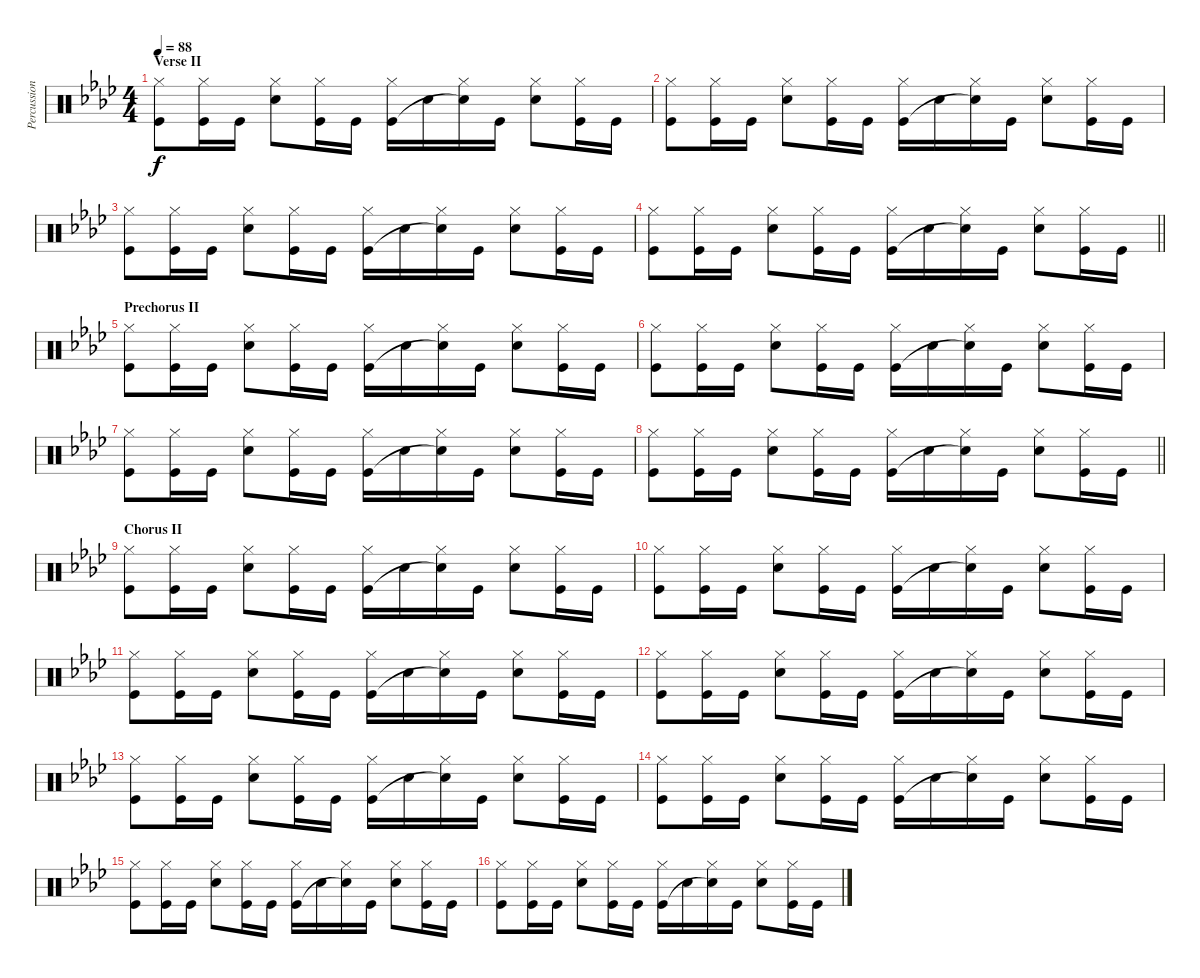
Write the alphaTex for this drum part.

\track ("Percussion" "Percussion") {instrument percussion}
\staff {score}
\articulation defaults
\ts (4 4)
\section ("" "Verse II")
\tempo 88
\clef neutral
\ks ab
("Hi-Hat (closed)" "Kick (hit)").8{dy f} ("Hi-Hat (closed)" "Kick (hit)").16 "Kick (hit)".16 ("Hi-Hat (closed)" "Snare (hit) 2").8 ("Hi-Hat (closed)" "Kick (hit)").16 "Kick (hit)".16 ("Hi-Hat (closed)" "Kick (hit)").16 "Snare (hit) 2".16 ("Hi-Hat (closed)" "Snare (hit) 2"{t}).16 "Kick (hit)".16 ("Hi-Hat (closed)" "Snare (hit) 2").8 ("Hi-Hat (closed)" "Kick (hit)").16 "Kick (hit)".16 |
("Hi-Hat (closed)" "Kick (hit)").8 ("Hi-Hat (closed)" "Kick (hit)").16 "Kick (hit)".16 ("Hi-Hat (closed)" "Snare (hit) 2").8 ("Hi-Hat (closed)" "Kick (hit)").16 "Kick (hit)".16 ("Hi-Hat (closed)" "Kick (hit)").16 "Snare (hit) 2".16 ("Hi-Hat (closed)" "Snare (hit) 2"{t}).16 "Kick (hit)".16 ("Hi-Hat (closed)" "Snare (hit) 2").8 ("Hi-Hat (closed)" "Kick (hit)").16 "Kick (hit)".16 |
("Hi-Hat (closed)" "Kick (hit)").8 ("Hi-Hat (closed)" "Kick (hit)").16 "Kick (hit)".16 ("Hi-Hat (closed)" "Snare (hit) 2").8 ("Hi-Hat (closed)" "Kick (hit)").16 "Kick (hit)".16 ("Hi-Hat (closed)" "Kick (hit)").16 "Snare (hit) 2".16 ("Hi-Hat (closed)" "Snare (hit) 2"{t}).16 "Kick (hit)".16 ("Hi-Hat (closed)" "Snare (hit) 2").8 ("Hi-Hat (closed)" "Kick (hit)").16 "Kick (hit)".16 |
\barLineRight lightlight
("Hi-Hat (closed)" "Kick (hit)").8 ("Hi-Hat (closed)" "Kick (hit)").16 "Kick (hit)".16 ("Hi-Hat (closed)" "Snare (hit) 2").8 ("Hi-Hat (closed)" "Kick (hit)").16 "Kick (hit)".16 ("Hi-Hat (closed)" "Kick (hit)").16 "Snare (hit) 2".16 ("Hi-Hat (closed)" "Snare (hit) 2"{t}).16 "Kick (hit)".16 ("Hi-Hat (closed)" "Snare (hit) 2").8 ("Hi-Hat (closed)" "Kick (hit)").16 "Kick (hit)".16 |
\section ("" "Prechorus II")
("Hi-Hat (closed)" "Kick (hit)").8 ("Hi-Hat (closed)" "Kick (hit)").16 "Kick (hit)".16 ("Hi-Hat (closed)" "Snare (hit) 2").8 ("Hi-Hat (closed)" "Kick (hit)").16 "Kick (hit)".16 ("Hi-Hat (closed)" "Kick (hit)").16 "Snare (hit) 2".16 ("Hi-Hat (closed)" "Snare (hit) 2"{t}).16 "Kick (hit)".16 ("Hi-Hat (closed)" "Snare (hit) 2").8 ("Hi-Hat (closed)" "Kick (hit)").16 "Kick (hit)".16 |
("Hi-Hat (closed)" "Kick (hit)").8 ("Hi-Hat (closed)" "Kick (hit)").16 "Kick (hit)".16 ("Hi-Hat (closed)" "Snare (hit) 2").8 ("Hi-Hat (closed)" "Kick (hit)").16 "Kick (hit)".16 ("Hi-Hat (closed)" "Kick (hit)").16 "Snare (hit) 2".16 ("Hi-Hat (closed)" "Snare (hit) 2"{t}).16 "Kick (hit)".16 ("Hi-Hat (closed)" "Snare (hit) 2").8 ("Hi-Hat (closed)" "Kick (hit)").16 "Kick (hit)".16 |
("Hi-Hat (closed)" "Kick (hit)").8 ("Hi-Hat (closed)" "Kick (hit)").16 "Kick (hit)".16 ("Hi-Hat (closed)" "Snare (hit) 2").8 ("Hi-Hat (closed)" "Kick (hit)").16 "Kick (hit)".16 ("Hi-Hat (closed)" "Kick (hit)").16 "Snare (hit) 2".16 ("Hi-Hat (closed)" "Snare (hit) 2"{t}).16 "Kick (hit)".16 ("Hi-Hat (closed)" "Snare (hit) 2").8 ("Hi-Hat (closed)" "Kick (hit)").16 "Kick (hit)".16 |
\barLineRight lightlight
("Hi-Hat (closed)" "Kick (hit)").8 ("Hi-Hat (closed)" "Kick (hit)").16 "Kick (hit)".16 ("Hi-Hat (closed)" "Snare (hit) 2").8 ("Hi-Hat (closed)" "Kick (hit)").16 "Kick (hit)".16 ("Hi-Hat (closed)" "Kick (hit)").16 "Snare (hit) 2".16 ("Hi-Hat (closed)" "Snare (hit) 2"{t}).16 "Kick (hit)".16 ("Hi-Hat (closed)" "Snare (hit) 2").8 ("Hi-Hat (closed)" "Kick (hit)").16 "Kick (hit)".16 |
\section ("" "Chorus II")
("Hi-Hat (closed)" "Kick (hit)").8 ("Hi-Hat (closed)" "Kick (hit)").16 "Kick (hit)".16 ("Hi-Hat (closed)" "Snare (hit) 2").8 ("Hi-Hat (closed)" "Kick (hit)").16 "Kick (hit)".16 ("Hi-Hat (closed)" "Kick (hit)").16 "Snare (hit) 2".16 ("Hi-Hat (closed)" "Snare (hit) 2"{t}).16 "Kick (hit)".16 ("Hi-Hat (closed)" "Snare (hit) 2").8 ("Hi-Hat (closed)" "Kick (hit)").16 "Kick (hit)".16 |
("Hi-Hat (closed)" "Kick (hit)").8 ("Hi-Hat (closed)" "Kick (hit)").16 "Kick (hit)".16 ("Hi-Hat (closed)" "Snare (hit) 2").8 ("Hi-Hat (closed)" "Kick (hit)").16 "Kick (hit)".16 ("Hi-Hat (closed)" "Kick (hit)").16 "Snare (hit) 2".16 ("Hi-Hat (closed)" "Snare (hit) 2"{t}).16 "Kick (hit)".16 ("Hi-Hat (closed)" "Snare (hit) 2").8 ("Hi-Hat (closed)" "Kick (hit)").16 "Kick (hit)".16 |
("Hi-Hat (closed)" "Kick (hit)").8 ("Hi-Hat (closed)" "Kick (hit)").16 "Kick (hit)".16 ("Hi-Hat (closed)" "Snare (hit) 2").8 ("Hi-Hat (closed)" "Kick (hit)").16 "Kick (hit)".16 ("Hi-Hat (closed)" "Kick (hit)").16 "Snare (hit) 2".16 ("Hi-Hat (closed)" "Snare (hit) 2"{t}).16 "Kick (hit)".16 ("Hi-Hat (closed)" "Snare (hit) 2").8 ("Hi-Hat (closed)" "Kick (hit)").16 "Kick (hit)".16 |
("Hi-Hat (closed)" "Kick (hit)").8 ("Hi-Hat (closed)" "Kick (hit)").16 "Kick (hit)".16 ("Hi-Hat (closed)" "Snare (hit) 2").8 ("Hi-Hat (closed)" "Kick (hit)").16 "Kick (hit)".16 ("Hi-Hat (closed)" "Kick (hit)").16 "Snare (hit) 2".16 ("Hi-Hat (closed)" "Snare (hit) 2"{t}).16 "Kick (hit)".16 ("Hi-Hat (closed)" "Snare (hit) 2").8 ("Hi-Hat (closed)" "Kick (hit)").16 "Kick (hit)".16 |
("Hi-Hat (closed)" "Kick (hit)").8 ("Hi-Hat (closed)" "Kick (hit)").16 "Kick (hit)".16 ("Hi-Hat (closed)" "Snare (hit) 2").8 ("Hi-Hat (closed)" "Kick (hit)").16 "Kick (hit)".16 ("Hi-Hat (closed)" "Kick (hit)").16 "Snare (hit) 2".16 ("Hi-Hat (closed)" "Snare (hit) 2"{t}).16 "Kick (hit)".16 ("Hi-Hat (closed)" "Snare (hit) 2").8 ("Hi-Hat (closed)" "Kick (hit)").16 "Kick (hit)".16 |
("Hi-Hat (closed)" "Kick (hit)").8 ("Hi-Hat (closed)" "Kick (hit)").16 "Kick (hit)".16 ("Hi-Hat (closed)" "Snare (hit) 2").8 ("Hi-Hat (closed)" "Kick (hit)").16 "Kick (hit)".16 ("Hi-Hat (closed)" "Kick (hit)").16 "Snare (hit) 2".16 ("Hi-Hat (closed)" "Snare (hit) 2"{t}).16 "Kick (hit)".16 ("Hi-Hat (closed)" "Snare (hit) 2").8 ("Hi-Hat (closed)" "Kick (hit)").16 "Kick (hit)".16 |
("Hi-Hat (closed)" "Kick (hit)").8 ("Hi-Hat (closed)" "Kick (hit)").16 "Kick (hit)".16 ("Hi-Hat (closed)" "Snare (hit) 2").8 ("Hi-Hat (closed)" "Kick (hit)").16 "Kick (hit)".16 ("Hi-Hat (closed)" "Kick (hit)").16 "Snare (hit) 2".16 ("Hi-Hat (closed)" "Snare (hit) 2"{t}).16 "Kick (hit)".16 ("Hi-Hat (closed)" "Snare (hit) 2").8 ("Hi-Hat (closed)" "Kick (hit)").16 "Kick (hit)".16 |
("Hi-Hat (closed)" "Kick (hit)").8 ("Hi-Hat (closed)" "Kick (hit)").16 "Kick (hit)".16 ("Hi-Hat (closed)" "Snare (hit) 2").8 ("Hi-Hat (closed)" "Kick (hit)").16 "Kick (hit)".16 ("Hi-Hat (closed)" "Kick (hit)").16 "Snare (hit) 2".16 ("Hi-Hat (closed)" "Snare (hit) 2"{t}).16 "Kick (hit)".16 ("Hi-Hat (closed)" "Snare (hit) 2").8 ("Hi-Hat (closed)" "Kick (hit)").16 "Kick (hit)".16
